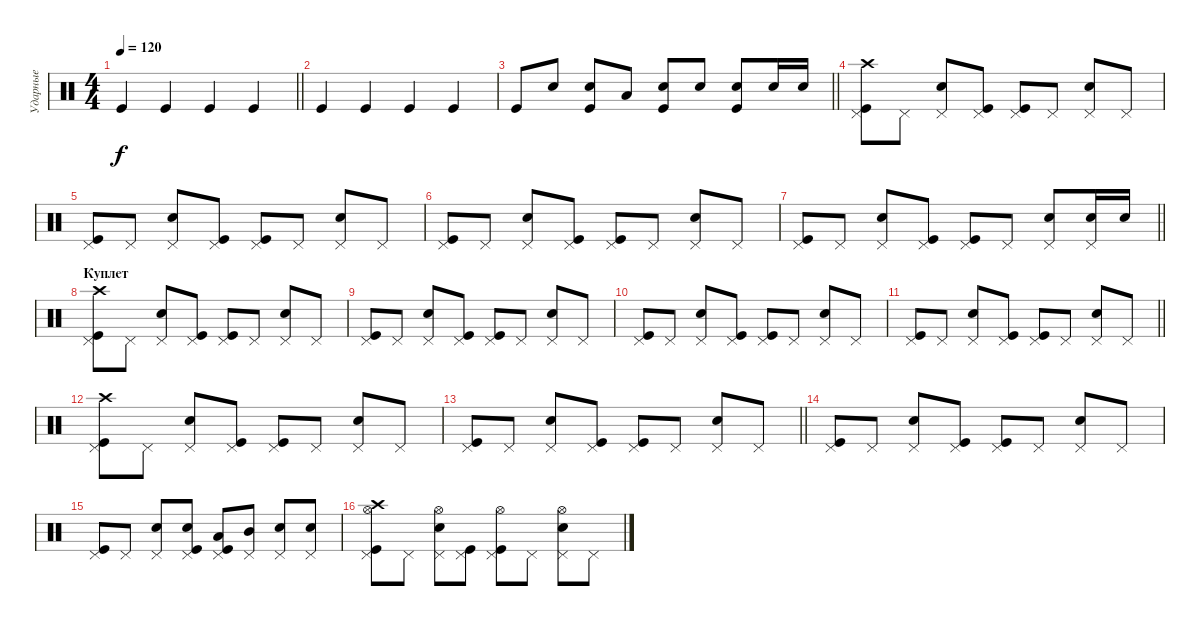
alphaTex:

\track ("Ударные" "Ударные") {instrument percussion}
\staff {score}
\articulation defaults
\ts (4 4)
\tempo 120
\clef neutral
\barLineRight lightlight
\ks c "Kick (hit)".4{dy f} "Kick (hit)".4 "Kick (hit)".4 "Kick (hit)".4
|
"Kick (hit)".4 "Kick (hit)".4 "Kick (hit)".4 "Kick (hit)".4 |
\barLineRight lightlight "Kick (hit)".8 "Snare (hit) 2".8
("Kick (hit)" "Snare (hit) 2").8 "Low Tom (hit)".8 ("Kick (hit)" "Snare (hit) 2").8 "Snare (hit) 2".8 ("Kick (hit)" "Snare (hit) 2").8 "Snare (hit) 2".16 "Snare (hit) 2".16 |
("Pedal Hi-Hat (hit)" "Kick (hit)" "Crash high (hit)").8 "Pedal Hi-Hat (hit)".8 ("Pedal Hi-Hat (hit)" "Snare (hit) 2").8 ("Pedal Hi-Hat (hit)" "Kick (hit)").8 ("Pedal Hi-Hat (hit)" "Kick (hit)").8 "Pedal Hi-Hat (hit)".8 ("Pedal Hi-Hat (hit)" "Snare (hit) 2").8 "Pedal Hi-Hat (hit)".8 |
("Pedal Hi-Hat (hit)" "Kick (hit)").8 "Pedal Hi-Hat (hit)".8 ("Pedal Hi-Hat (hit)" "Snare (hit) 2").8 ("Pedal Hi-Hat (hit)" "Kick (hit)").8 ("Pedal Hi-Hat (hit)" "Kick (hit)").8 "Pedal Hi-Hat (hit)".8 ("Pedal Hi-Hat (hit)" "Snare (hit) 2").8 "Pedal Hi-Hat (hit)".8 |
("Pedal Hi-Hat (hit)" "Kick (hit)").8 "Pedal Hi-Hat (hit)".8 ("Pedal Hi-Hat (hit)" "Snare (hit) 2").8 ("Pedal Hi-Hat (hit)" "Kick (hit)").8 ("Pedal Hi-Hat (hit)" "Kick (hit)").8 "Pedal Hi-Hat (hit)".8 ("Pedal Hi-Hat (hit)" "Snare (hit) 2").8 "Pedal Hi-Hat (hit)".8 |
\barLineRight lightlight
("Pedal Hi-Hat (hit)" "Kick (hit)").8 "Pedal Hi-Hat (hit)".8 ("Pedal Hi-Hat (hit)" "Snare (hit) 2").8 ("Pedal Hi-Hat (hit)" "Kick (hit)").8 ("Pedal Hi-Hat (hit)" "Kick (hit)").8 "Pedal Hi-Hat (hit)".8 ("Pedal Hi-Hat (hit)" "Snare (hit) 2").8 ("Pedal Hi-Hat (hit)" "Snare (hit) 2").16 "Snare (hit) 2".16 |
\section ("" "Куплет")
("Pedal Hi-Hat (hit)" "Kick (hit)" "Crash high (hit)").8 "Pedal Hi-Hat (hit)".8 ("Pedal Hi-Hat (hit)" "Snare (hit) 2").8 ("Pedal Hi-Hat (hit)" "Kick (hit)").8 ("Pedal Hi-Hat (hit)" "Kick (hit)").8 "Pedal Hi-Hat (hit)".8 ("Pedal Hi-Hat (hit)" "Snare (hit) 2").8 "Pedal Hi-Hat (hit)".8 |
("Pedal Hi-Hat (hit)" "Kick (hit)").8 "Pedal Hi-Hat (hit)".8 ("Pedal Hi-Hat (hit)" "Snare (hit) 2").8 ("Pedal Hi-Hat (hit)" "Kick (hit)").8 ("Pedal Hi-Hat (hit)" "Kick (hit)").8 "Pedal Hi-Hat (hit)".8 ("Pedal Hi-Hat (hit)" "Snare (hit) 2").8 "Pedal Hi-Hat (hit)".8 |
("Pedal Hi-Hat (hit)" "Kick (hit)").8 "Pedal Hi-Hat (hit)".8 ("Pedal Hi-Hat (hit)" "Snare (hit) 2").8 ("Pedal Hi-Hat (hit)" "Kick (hit)").8 ("Pedal Hi-Hat (hit)" "Kick (hit)").8 "Pedal Hi-Hat (hit)".8 ("Pedal Hi-Hat (hit)" "Snare (hit) 2").8 "Pedal Hi-Hat (hit)".8 |
\barLineRight lightlight
("Pedal Hi-Hat (hit)" "Kick (hit)").8 "Pedal Hi-Hat (hit)".8 ("Pedal Hi-Hat (hit)" "Snare (hit) 2").8 ("Pedal Hi-Hat (hit)" "Kick (hit)").8 ("Pedal Hi-Hat (hit)" "Kick (hit)").8 "Pedal Hi-Hat (hit)".8 ("Pedal Hi-Hat (hit)" "Snare (hit) 2").8 "Pedal Hi-Hat (hit)".8 |
("Pedal Hi-Hat (hit)" "Kick (hit)" "Crash high (hit)").8 "Pedal Hi-Hat (hit)".8 ("Pedal Hi-Hat (hit)" "Snare (hit) 2").8 ("Pedal Hi-Hat (hit)" "Kick (hit)").8 ("Pedal Hi-Hat (hit)" "Kick (hit)").8 "Pedal Hi-Hat (hit)".8 ("Pedal Hi-Hat (hit)" "Snare (hit) 2").8 "Pedal Hi-Hat (hit)".8 |
\barLineRight lightlight
("Pedal Hi-Hat (hit)" "Kick (hit)").8 "Pedal Hi-Hat (hit)".8 ("Pedal Hi-Hat (hit)" "Snare (hit) 2").8 ("Pedal Hi-Hat (hit)" "Kick (hit)").8 ("Pedal Hi-Hat (hit)" "Kick (hit)").8 "Pedal Hi-Hat (hit)".8 ("Pedal Hi-Hat (hit)" "Snare (hit) 2").8 "Pedal Hi-Hat (hit)".8 |
("Pedal Hi-Hat (hit)" "Kick (hit)").8 "Pedal Hi-Hat (hit)".8 ("Pedal Hi-Hat (hit)" "Snare (hit) 2").8 ("Pedal Hi-Hat (hit)" "Kick (hit)").8 ("Pedal Hi-Hat (hit)" "Kick (hit)").8 "Pedal Hi-Hat (hit)".8 ("Pedal Hi-Hat (hit)" "Snare (hit) 2").8 "Pedal Hi-Hat (hit)".8 |
("Pedal Hi-Hat (hit)" "Kick (hit)").8 "Pedal Hi-Hat (hit)".8 ("Pedal Hi-Hat (hit)" "Snare (hit) 2").8 ("Pedal Hi-Hat (hit)" "Kick (hit)" "Snare (hit) 2").8 ("Pedal Hi-Hat (hit)" "Kick (hit)" "Low Tom (hit)").8 ("Pedal Hi-Hat (hit)" "Mid Tom (hit)").8 ("Pedal Hi-Hat (hit)" "Snare (hit) 2").8 ("Pedal Hi-Hat (hit)" "Snare (hit) 2").8 |
("Pedal Hi-Hat (hit)" "Kick (hit)" "Hi-Hat (open)" "Crash high (hit)").8 "Pedal Hi-Hat (hit)".8 ("Pedal Hi-Hat (hit)" "Snare (hit) 2" "Hi-Hat (open)").8 ("Pedal Hi-Hat (hit)" "Kick (hit)").8 ("Pedal Hi-Hat (hit)" "Kick (hit)" "Hi-Hat (open)").8 "Pedal Hi-Hat (hit)".8 ("Pedal Hi-Hat (hit)" "Snare (hit) 2" "Hi-Hat (open)").8 "Pedal Hi-Hat (hit)".8
